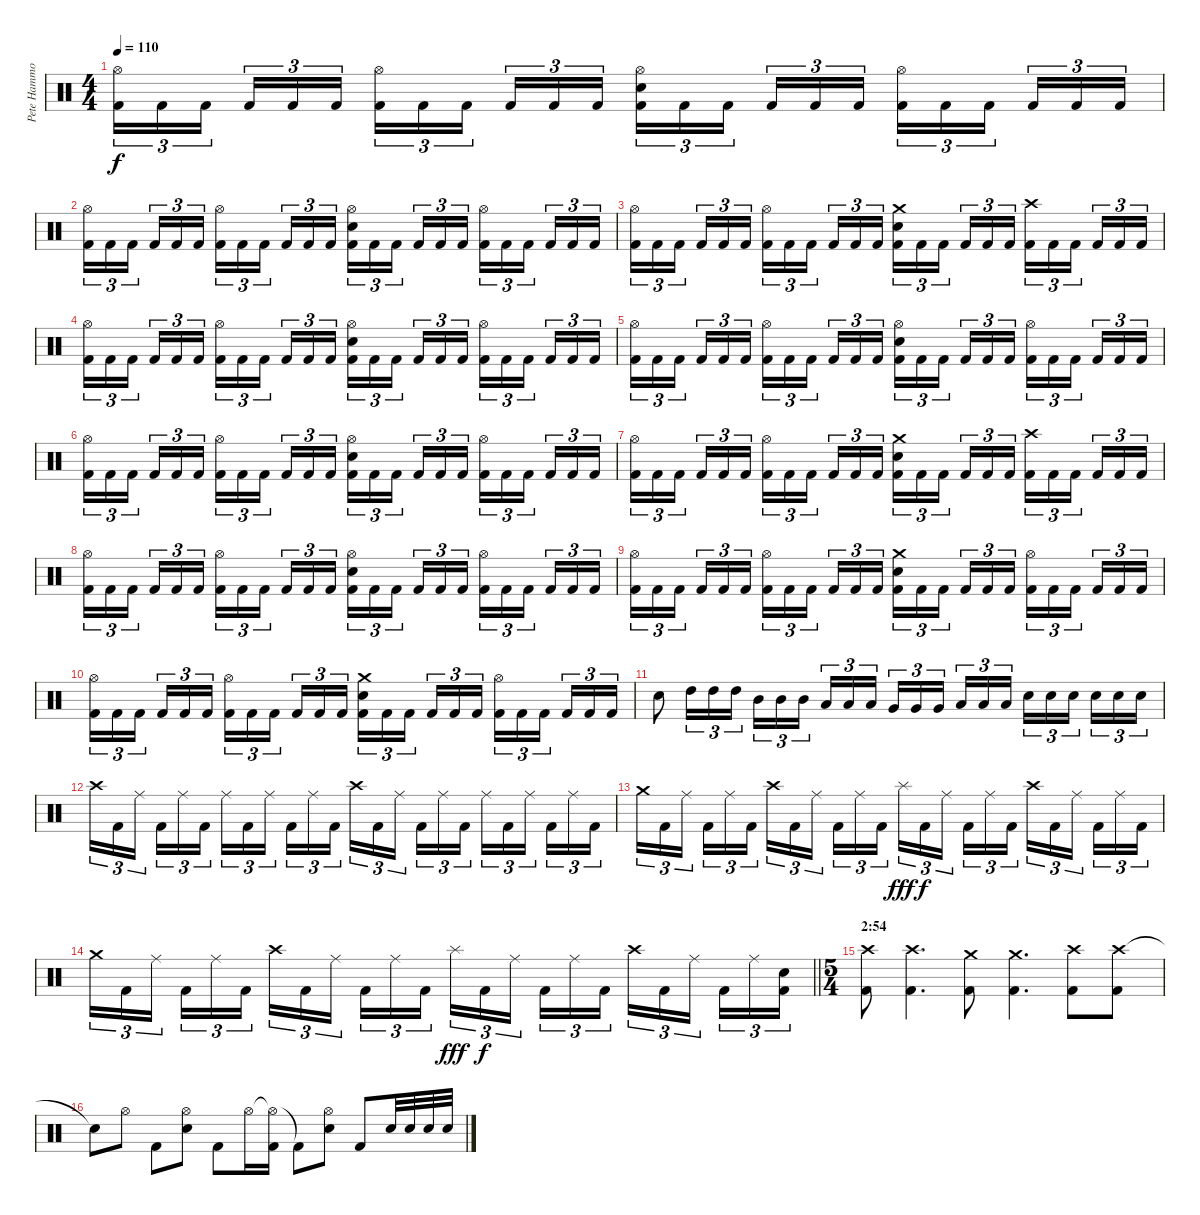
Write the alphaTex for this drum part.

\track ("Pete Hammoura" "Pete Hammo") {instrument percussion}
\staff {score}
\articulation defaults
\ts (4 4)
\tempo 110
\clef neutral
\ks c
("Hi-Hat (open)" "Kick (hit) 2").16{tu (3 2) dy f} "Kick (hit) 2".16{tu (3 2)} "Kick (hit) 2".16{tu (3 2) beam splitsecondary} "Kick (hit) 2".16{tu (3 2)} "Kick (hit) 2".16{tu (3 2)} "Kick (hit) 2".16{tu (3 2)} ("Hi-Hat (open)" "Kick (hit) 2").16{tu (3 2)} "Kick (hit) 2".16{tu (3 2)} "Kick (hit) 2".16{tu (3 2) beam splitsecondary} "Kick (hit) 2".16{tu (3 2)} "Kick (hit) 2".16{tu (3 2)} "Kick (hit) 2".16{tu (3 2)} ("Hi-Hat (open)" "Electric Snare (hit)" "Kick (hit) 2").16{tu (3 2)} "Kick (hit) 2".16{tu (3 2)} "Kick (hit) 2".16{tu (3 2) beam splitsecondary} "Kick (hit) 2".16{tu (3 2)} "Kick (hit) 2".16{tu (3 2)} "Kick (hit) 2".16{tu (3 2)} ("Hi-Hat (open)" "Kick (hit) 2").16{tu (3 2)} "Kick (hit) 2".16{tu (3 2)} "Kick (hit) 2".16{tu (3 2) beam splitsecondary} "Kick (hit) 2".16{tu (3 2)} "Kick (hit) 2".16{tu (3 2)} "Kick (hit) 2".16{tu (3 2)} |
("Hi-Hat (open)" "Kick (hit) 2").16{tu (3 2)} "Kick (hit) 2".16{tu (3 2)} "Kick (hit) 2".16{tu (3 2) beam splitsecondary} "Kick (hit) 2".16{tu (3 2)} "Kick (hit) 2".16{tu (3 2)} "Kick (hit) 2".16{tu (3 2)} ("Hi-Hat (open)" "Kick (hit) 2").16{tu (3 2)} "Kick (hit) 2".16{tu (3 2)} "Kick (hit) 2".16{tu (3 2) beam splitsecondary} "Kick (hit) 2".16{tu (3 2)} "Kick (hit) 2".16{tu (3 2)} "Kick (hit) 2".16{tu (3 2)} ("Hi-Hat (open)" "Electric Snare (hit)" "Kick (hit) 2").16{tu (3 2)} "Kick (hit) 2".16{tu (3 2)} "Kick (hit) 2".16{tu (3 2) beam splitsecondary} "Kick (hit) 2".16{tu (3 2)} "Kick (hit) 2".16{tu (3 2)} "Kick (hit) 2".16{tu (3 2)} ("Hi-Hat (open)" "Kick (hit) 2").16{tu (3 2)} "Kick (hit) 2".16{tu (3 2)} "Kick (hit) 2".16{tu (3 2) beam splitsecondary} "Kick (hit) 2".16{tu (3 2)} "Kick (hit) 2".16{tu (3 2)} "Kick (hit) 2".16{tu (3 2)} |
("Hi-Hat (open)" "Kick (hit) 2").16{tu (3 2)} "Kick (hit) 2".16{tu (3 2)} "Kick (hit) 2".16{tu (3 2) beam splitsecondary} "Kick (hit) 2".16{tu (3 2)} "Kick (hit) 2".16{tu (3 2)} "Kick (hit) 2".16{tu (3 2)} ("Hi-Hat (open)" "Kick (hit) 2").16{tu (3 2)} "Kick (hit) 2".16{tu (3 2)} "Kick (hit) 2".16{tu (3 2) beam splitsecondary} "Kick (hit) 2".16{tu (3 2)} "Kick (hit) 2".16{tu (3 2)} "Kick (hit) 2".16{tu (3 2)} ("Crash medium (hit)" "Electric Snare (hit)" "Kick (hit) 2").16{tu (3 2)} "Kick (hit) 2".16{tu (3 2)} "Kick (hit) 2".16{tu (3 2) beam splitsecondary} "Kick (hit) 2".16{tu (3 2)} "Kick (hit) 2".16{tu (3 2)} "Kick (hit) 2".16{tu (3 2)} ("Crash high (hit)" "Kick (hit) 2").16{tu (3 2)} "Kick (hit) 2".16{tu (3 2)} "Kick (hit) 2".16{tu (3 2) beam splitsecondary} "Kick (hit) 2".16{tu (3 2)} "Kick (hit) 2".16{tu (3 2)} "Kick (hit) 2".16{tu (3 2)} |
("Hi-Hat (open)" "Kick (hit) 2").16{tu (3 2)} "Kick (hit) 2".16{tu (3 2)} "Kick (hit) 2".16{tu (3 2) beam splitsecondary} "Kick (hit) 2".16{tu (3 2)} "Kick (hit) 2".16{tu (3 2)} "Kick (hit) 2".16{tu (3 2)} ("Hi-Hat (open)" "Kick (hit) 2").16{tu (3 2)} "Kick (hit) 2".16{tu (3 2)} "Kick (hit) 2".16{tu (3 2) beam splitsecondary} "Kick (hit) 2".16{tu (3 2)} "Kick (hit) 2".16{tu (3 2)} "Kick (hit) 2".16{tu (3 2)} ("Hi-Hat (open)" "Electric Snare (hit)" "Kick (hit) 2").16{tu (3 2)} "Kick (hit) 2".16{tu (3 2)} "Kick (hit) 2".16{tu (3 2) beam splitsecondary} "Kick (hit) 2".16{tu (3 2)} "Kick (hit) 2".16{tu (3 2)} "Kick (hit) 2".16{tu (3 2)} ("Hi-Hat (open)" "Kick (hit) 2").16{tu (3 2)} "Kick (hit) 2".16{tu (3 2)} "Kick (hit) 2".16{tu (3 2) beam splitsecondary} "Kick (hit) 2".16{tu (3 2)} "Kick (hit) 2".16{tu (3 2)} "Kick (hit) 2".16{tu (3 2)} |
("Hi-Hat (open)" "Kick (hit) 2").16{tu (3 2)} "Kick (hit) 2".16{tu (3 2)} "Kick (hit) 2".16{tu (3 2) beam splitsecondary} "Kick (hit) 2".16{tu (3 2)} "Kick (hit) 2".16{tu (3 2)} "Kick (hit) 2".16{tu (3 2)} ("Hi-Hat (open)" "Kick (hit) 2").16{tu (3 2)} "Kick (hit) 2".16{tu (3 2)} "Kick (hit) 2".16{tu (3 2) beam splitsecondary} "Kick (hit) 2".16{tu (3 2)} "Kick (hit) 2".16{tu (3 2)} "Kick (hit) 2".16{tu (3 2)} ("Hi-Hat (open)" "Electric Snare (hit)" "Kick (hit) 2").16{tu (3 2)} "Kick (hit) 2".16{tu (3 2)} "Kick (hit) 2".16{tu (3 2) beam splitsecondary} "Kick (hit) 2".16{tu (3 2)} "Kick (hit) 2".16{tu (3 2)} "Kick (hit) 2".16{tu (3 2)} ("Hi-Hat (open)" "Kick (hit) 2").16{tu (3 2)} "Kick (hit) 2".16{tu (3 2)} "Kick (hit) 2".16{tu (3 2) beam splitsecondary} "Kick (hit) 2".16{tu (3 2)} "Kick (hit) 2".16{tu (3 2)} "Kick (hit) 2".16{tu (3 2)} |
("Hi-Hat (open)" "Kick (hit) 2").16{tu (3 2)} "Kick (hit) 2".16{tu (3 2)} "Kick (hit) 2".16{tu (3 2) beam splitsecondary} "Kick (hit) 2".16{tu (3 2)} "Kick (hit) 2".16{tu (3 2)} "Kick (hit) 2".16{tu (3 2)} ("Hi-Hat (open)" "Kick (hit) 2").16{tu (3 2)} "Kick (hit) 2".16{tu (3 2)} "Kick (hit) 2".16{tu (3 2) beam splitsecondary} "Kick (hit) 2".16{tu (3 2)} "Kick (hit) 2".16{tu (3 2)} "Kick (hit) 2".16{tu (3 2)} ("Hi-Hat (open)" "Electric Snare (hit)" "Kick (hit) 2").16{tu (3 2)} "Kick (hit) 2".16{tu (3 2)} "Kick (hit) 2".16{tu (3 2) beam splitsecondary} "Kick (hit) 2".16{tu (3 2)} "Kick (hit) 2".16{tu (3 2)} "Kick (hit) 2".16{tu (3 2)} ("Hi-Hat (open)" "Kick (hit) 2").16{tu (3 2)} "Kick (hit) 2".16{tu (3 2)} "Kick (hit) 2".16{tu (3 2) beam splitsecondary} "Kick (hit) 2".16{tu (3 2)} "Kick (hit) 2".16{tu (3 2)} "Kick (hit) 2".16{tu (3 2)} |
("Hi-Hat (open)" "Kick (hit) 2").16{tu (3 2)} "Kick (hit) 2".16{tu (3 2)} "Kick (hit) 2".16{tu (3 2) beam splitsecondary} "Kick (hit) 2".16{tu (3 2)} "Kick (hit) 2".16{tu (3 2)} "Kick (hit) 2".16{tu (3 2)} ("Hi-Hat (open)" "Kick (hit) 2").16{tu (3 2)} "Kick (hit) 2".16{tu (3 2)} "Kick (hit) 2".16{tu (3 2) beam splitsecondary} "Kick (hit) 2".16{tu (3 2)} "Kick (hit) 2".16{tu (3 2)} "Kick (hit) 2".16{tu (3 2)} ("Crash medium (hit)" "Electric Snare (hit)" "Kick (hit) 2").16{tu (3 2)} "Kick (hit) 2".16{tu (3 2)} "Kick (hit) 2".16{tu (3 2) beam splitsecondary} "Kick (hit) 2".16{tu (3 2)} "Kick (hit) 2".16{tu (3 2)} "Kick (hit) 2".16{tu (3 2)} ("Crash high (hit)" "Kick (hit) 2").16{tu (3 2)} "Kick (hit) 2".16{tu (3 2)} "Kick (hit) 2".16{tu (3 2) beam splitsecondary} "Kick (hit) 2".16{tu (3 2)} "Kick (hit) 2".16{tu (3 2)} "Kick (hit) 2".16{tu (3 2)} |
("Hi-Hat (open)" "Kick (hit) 2").16{tu (3 2)} "Kick (hit) 2".16{tu (3 2)} "Kick (hit) 2".16{tu (3 2) beam splitsecondary} "Kick (hit) 2".16{tu (3 2)} "Kick (hit) 2".16{tu (3 2)} "Kick (hit) 2".16{tu (3 2)} ("Hi-Hat (open)" "Kick (hit) 2").16{tu (3 2)} "Kick (hit) 2".16{tu (3 2)} "Kick (hit) 2".16{tu (3 2) beam splitsecondary} "Kick (hit) 2".16{tu (3 2)} "Kick (hit) 2".16{tu (3 2)} "Kick (hit) 2".16{tu (3 2)} ("Hi-Hat (open)" "Electric Snare (hit)" "Kick (hit) 2").16{tu (3 2)} "Kick (hit) 2".16{tu (3 2)} "Kick (hit) 2".16{tu (3 2) beam splitsecondary} "Kick (hit) 2".16{tu (3 2)} "Kick (hit) 2".16{tu (3 2)} "Kick (hit) 2".16{tu (3 2)} ("Hi-Hat (open)" "Kick (hit) 2").16{tu (3 2)} "Kick (hit) 2".16{tu (3 2)} "Kick (hit) 2".16{tu (3 2) beam splitsecondary} "Kick (hit) 2".16{tu (3 2)} "Kick (hit) 2".16{tu (3 2)} "Kick (hit) 2".16{tu (3 2)} |
("Hi-Hat (open)" "Kick (hit) 2").16{tu (3 2)} "Kick (hit) 2".16{tu (3 2)} "Kick (hit) 2".16{tu (3 2) beam splitsecondary} "Kick (hit) 2".16{tu (3 2)} "Kick (hit) 2".16{tu (3 2)} "Kick (hit) 2".16{tu (3 2)} ("Hi-Hat (open)" "Kick (hit) 2").16{tu (3 2)} "Kick (hit) 2".16{tu (3 2)} "Kick (hit) 2".16{tu (3 2) beam splitsecondary} "Kick (hit) 2".16{tu (3 2)} "Kick (hit) 2".16{tu (3 2)} "Kick (hit) 2".16{tu (3 2)} ("Crash medium (hit)" "Electric Snare (hit)" "Kick (hit) 2").16{tu (3 2)} "Kick (hit) 2".16{tu (3 2)} "Kick (hit) 2".16{tu (3 2) beam splitsecondary} "Kick (hit) 2".16{tu (3 2)} "Kick (hit) 2".16{tu (3 2)} "Kick (hit) 2".16{tu (3 2)} ("Hi-Hat (open)" "Kick (hit) 2").16{tu (3 2)} "Kick (hit) 2".16{tu (3 2)} "Kick (hit) 2".16{tu (3 2) beam splitsecondary} "Kick (hit) 2".16{tu (3 2)} "Kick (hit) 2".16{tu (3 2)} "Kick (hit) 2".16{tu (3 2)} |
("Hi-Hat (open)" "Kick (hit) 2").16{tu (3 2)} "Kick (hit) 2".16{tu (3 2)} "Kick (hit) 2".16{tu (3 2) beam splitsecondary} "Kick (hit) 2".16{tu (3 2)} "Kick (hit) 2".16{tu (3 2)} "Kick (hit) 2".16{tu (3 2)} ("Hi-Hat (open)" "Kick (hit) 2").16{tu (3 2)} "Kick (hit) 2".16{tu (3 2)} "Kick (hit) 2".16{tu (3 2) beam splitsecondary} "Kick (hit) 2".16{tu (3 2)} "Kick (hit) 2".16{tu (3 2)} "Kick (hit) 2".16{tu (3 2)} ("Crash medium (hit)" "Electric Snare (hit)" "Kick (hit) 2").16{tu (3 2)} "Kick (hit) 2".16{tu (3 2)} "Kick (hit) 2".16{tu (3 2) beam splitsecondary} "Kick (hit) 2".16{tu (3 2)} "Kick (hit) 2".16{tu (3 2)} "Kick (hit) 2".16{tu (3 2)} ("Hi-Hat (open)" "Kick (hit) 2").16{tu (3 2)} "Kick (hit) 2".16{tu (3 2)} "Kick (hit) 2".16{tu (3 2) beam splitsecondary} "Kick (hit) 2".16{tu (3 2)} "Kick (hit) 2".16{tu (3 2)} "Kick (hit) 2".16{tu (3 2)} |
"Electric Snare (hit)".8 "High Tom (hit)".16{tu (3 2)} "High Tom (hit)".16{tu (3 2)} "High Tom (hit)".16{tu (3 2)} "Mid Tom (hit)".16{tu (3 2)} "Mid Tom (hit)".16{tu (3 2)} "Mid Tom (hit)".16{tu (3 2) beam splitsecondary} "Low Tom (hit)".16{tu (3 2)} "Low Tom (hit)".16{tu (3 2)} "Low Tom (hit)".16{tu (3 2)} "Very Low Tom (hit)".16{tu (3 2)} "Very Low Tom (hit)".16{tu (3 2)} "Very Low Tom (hit)".16{tu (3 2) beam splitsecondary} "Low Floor Tom (hit)".16{tu (3 2)} "Low Floor Tom (hit)".16{tu (3 2)} "Low Floor Tom (hit)".16{tu (3 2)} "Electric Snare (hit)".16{tu (3 2)} "Electric Snare (hit)".16{tu (3 2)} "Electric Snare (hit)".16{tu (3 2) beam splitsecondary} "Electric Snare (hit)".16{tu (3 2)} "Electric Snare (hit)".16{tu (3 2)} "Electric Snare (hit)".16{tu (3 2)} |
"Crash high (hit)".16{tu (3 2)} "Kick (hit) 2".16{tu (3 2)} "Ride (middle)".16{tu (3 2) beam splitsecondary} "Kick (hit) 2".16{tu (3 2)} "Ride (middle)".16{tu (3 2)} "Kick (hit) 2".16{tu (3 2)} "Ride (middle)".16{tu (3 2)} "Kick (hit) 2".16{tu (3 2)} "Ride (middle)".16{tu (3 2) beam splitsecondary} "Kick (hit) 2".16{tu (3 2)} "Ride (middle)".16{tu (3 2)} "Kick (hit) 2".16{tu (3 2)} "Crash high (hit)".16{tu (3 2)} "Kick (hit) 2".16{tu (3 2)} "Ride (middle)".16{tu (3 2) beam splitsecondary} "Kick (hit) 2".16{tu (3 2)} "Ride (middle)".16{tu (3 2)} "Kick (hit) 2".16{tu (3 2)} "Ride (middle)".16{tu (3 2)} "Kick (hit) 2".16{tu (3 2)} "Ride (middle)".16{tu (3 2) beam splitsecondary} "Kick (hit) 2".16{tu (3 2)} "Ride (middle)".16{tu (3 2)} "Kick (hit) 2".16{tu (3 2)} |
"Crash medium (hit)".16{tu (3 2)} "Kick (hit) 2".16{tu (3 2)} "Ride (middle)".16{tu (3 2) beam splitsecondary} "Kick (hit) 2".16{tu (3 2)} "Ride (middle)".16{tu (3 2)} "Kick (hit) 2".16{tu (3 2)} "Crash high (hit)".16{tu (3 2)} "Kick (hit) 2".16{tu (3 2)} "Ride (middle)".16{tu (3 2) beam splitsecondary} "Kick (hit) 2".16{tu (3 2)} "Ride (middle)".16{tu (3 2)} "Kick (hit) 2".16{tu (3 2)} "Splash (hit)".16{tu (3 2) dy fff} "Kick (hit) 2".16{tu (3 2) dy f} "Ride (middle)".16{tu (3 2) beam splitsecondary} "Kick (hit) 2".16{tu (3 2)} "Ride (middle)".16{tu (3 2)} "Kick (hit) 2".16{tu (3 2)} "Crash high (hit)".16{tu (3 2)} "Kick (hit) 2".16{tu (3 2)} "Ride (middle)".16{tu (3 2) beam splitsecondary} "Kick (hit) 2".16{tu (3 2)} "Ride (middle)".16{tu (3 2)} "Kick (hit) 2".16{tu (3 2)} |
\barLineRight lightlight "Crash medium (hit)".16{tu (3 2)} "Kick (hit) 2".16{tu (3 2)} "Ride (middle)".16{tu (3 2) beam splitsecondary} "Kick (hit) 2".16{tu (3 2)} "Ride (middle)".16{tu (3 2)} "Kick (hit) 2".16{tu (3 2)} "Crash high (hit)".16{tu (3 2)} "Kick (hit) 2".16{tu (3 2)} "Ride (middle)".16{tu (3 2) beam splitsecondary} "Kick (hit) 2".16{tu (3 2)} "Ride (middle)".16{tu (3 2)} "Kick (hit) 2".16{tu (3 2)} "Splash (hit)".16{tu (3 2) dy fff} "Kick (hit) 2".16{tu (3 2) dy f} "Ride (middle)".16{tu (3 2) beam splitsecondary} "Kick (hit) 2".16{tu (3 2)} "Ride (middle)".16{tu (3 2)} "Kick (hit) 2".16{tu (3 2)} "Crash high (hit)".16{tu (3 2)} "Kick (hit) 2".16{tu (3 2)} "Ride (middle)".16{tu (3 2) beam splitsecondary} "Kick (hit) 2".16{tu (3 2)} "Ride (middle)".16{tu (3 2)}
("Electric Snare (hit)" "Kick (hit) 2").16{tu (3 2)} |
\ts (5 4)
\section ("" "2:54")
("Crash high (hit)" "Kick (hit) 2").8 ("Crash high (hit)" "Kick (hit) 2").4{d} ("Crash medium (hit)" "Kick (hit) 2").8 ("Crash medium (hit)" "Kick (hit) 2").4{d} ("Crash high (hit)" "Kick (hit) 2").8 ("Crash high (hit)" "Kick (hit) 2").8 |
"Snare (hit)"{t}.8 "Hi-Hat (open)".8 "Kick (hit) 2".8 ("Hi-Hat (open)" "Electric Snare (hit)").8 "Kick (hit) 2".8 "Hi-Hat (open)".16 ("Hi-Hat (open)"{t} "Kick (hit) 2").16 "Kick (hit) 2"{t}.8 ("Hi-Hat (open)" "Electric Snare (hit)").8 "Kick (hit) 2".8 "Electric Snare (hit)".32 "Electric Snare (hit)".32 "Electric Snare (hit)".32 "Electric Snare (hit)".32
